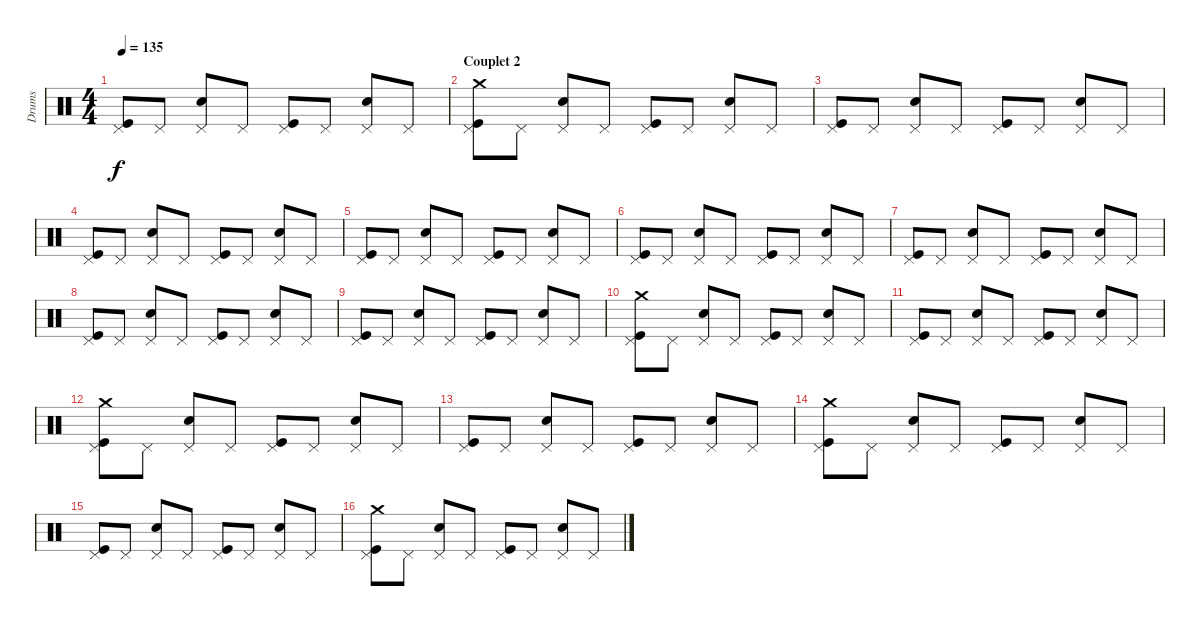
\track ("Drums" "Drums") {instrument percussion}
\staff {score}
\articulation defaults
\ts (4 4)
\tempo 135
\clef neutral
\ks c
("Pedal Hi-Hat (hit)" "Kick (hit)").8{dy f} "Pedal Hi-Hat (hit)".8 ("Pedal Hi-Hat (hit)" "Electric Snare (hit)").8 "Pedal Hi-Hat (hit)".8 ("Pedal Hi-Hat (hit)" "Kick (hit)").8 "Pedal Hi-Hat (hit)".8 ("Pedal Hi-Hat (hit)" "Electric Snare (hit)").8 "Pedal Hi-Hat (hit)".8 |
\section ("" "Couplet 2")
("Pedal Hi-Hat (hit)" "Kick (hit)" "Crash medium (hit)").8 "Pedal Hi-Hat (hit)".8 ("Pedal Hi-Hat (hit)" "Electric Snare (hit)").8 "Pedal Hi-Hat (hit)".8 ("Pedal Hi-Hat (hit)" "Kick (hit)").8 "Pedal Hi-Hat (hit)".8 ("Pedal Hi-Hat (hit)" "Electric Snare (hit)").8 "Pedal Hi-Hat (hit)".8 |
("Pedal Hi-Hat (hit)" "Kick (hit)").8 "Pedal Hi-Hat (hit)".8 ("Pedal Hi-Hat (hit)" "Electric Snare (hit)").8 "Pedal Hi-Hat (hit)".8 ("Pedal Hi-Hat (hit)" "Kick (hit)").8 "Pedal Hi-Hat (hit)".8 ("Pedal Hi-Hat (hit)" "Electric Snare (hit)").8 "Pedal Hi-Hat (hit)".8 |
("Pedal Hi-Hat (hit)" "Kick (hit)").8 "Pedal Hi-Hat (hit)".8 ("Pedal Hi-Hat (hit)" "Electric Snare (hit)").8 "Pedal Hi-Hat (hit)".8 ("Pedal Hi-Hat (hit)" "Kick (hit)").8 "Pedal Hi-Hat (hit)".8 ("Pedal Hi-Hat (hit)" "Electric Snare (hit)").8 "Pedal Hi-Hat (hit)".8 |
("Pedal Hi-Hat (hit)" "Kick (hit)").8 "Pedal Hi-Hat (hit)".8 ("Pedal Hi-Hat (hit)" "Electric Snare (hit)").8 "Pedal Hi-Hat (hit)".8 ("Pedal Hi-Hat (hit)" "Kick (hit)").8 "Pedal Hi-Hat (hit)".8 ("Pedal Hi-Hat (hit)" "Electric Snare (hit)").8 "Pedal Hi-Hat (hit)".8 |
("Pedal Hi-Hat (hit)" "Kick (hit)").8 "Pedal Hi-Hat (hit)".8 ("Pedal Hi-Hat (hit)" "Electric Snare (hit)").8 "Pedal Hi-Hat (hit)".8 ("Pedal Hi-Hat (hit)" "Kick (hit)").8 "Pedal Hi-Hat (hit)".8 ("Pedal Hi-Hat (hit)" "Electric Snare (hit)").8 "Pedal Hi-Hat (hit)".8 |
("Pedal Hi-Hat (hit)" "Kick (hit)").8 "Pedal Hi-Hat (hit)".8 ("Pedal Hi-Hat (hit)" "Electric Snare (hit)").8 "Pedal Hi-Hat (hit)".8 ("Pedal Hi-Hat (hit)" "Kick (hit)").8 "Pedal Hi-Hat (hit)".8 ("Pedal Hi-Hat (hit)" "Electric Snare (hit)").8 "Pedal Hi-Hat (hit)".8 |
("Pedal Hi-Hat (hit)" "Kick (hit)").8 "Pedal Hi-Hat (hit)".8 ("Pedal Hi-Hat (hit)" "Electric Snare (hit)").8 "Pedal Hi-Hat (hit)".8 ("Pedal Hi-Hat (hit)" "Kick (hit)").8 "Pedal Hi-Hat (hit)".8 ("Pedal Hi-Hat (hit)" "Electric Snare (hit)").8 "Pedal Hi-Hat (hit)".8 |
("Pedal Hi-Hat (hit)" "Kick (hit)").8 "Pedal Hi-Hat (hit)".8 ("Pedal Hi-Hat (hit)" "Electric Snare (hit)").8 "Pedal Hi-Hat (hit)".8 ("Pedal Hi-Hat (hit)" "Kick (hit)").8 "Pedal Hi-Hat (hit)".8 ("Pedal Hi-Hat (hit)" "Electric Snare (hit)").8 "Pedal Hi-Hat (hit)".8 |
("Pedal Hi-Hat (hit)" "Kick (hit)" "Crash medium (hit)").8 "Pedal Hi-Hat (hit)".8 ("Pedal Hi-Hat (hit)" "Electric Snare (hit)").8 "Pedal Hi-Hat (hit)".8 ("Pedal Hi-Hat (hit)" "Kick (hit)").8 "Pedal Hi-Hat (hit)".8 ("Pedal Hi-Hat (hit)" "Electric Snare (hit)").8 "Pedal Hi-Hat (hit)".8 |
("Pedal Hi-Hat (hit)" "Kick (hit)").8 "Pedal Hi-Hat (hit)".8 ("Pedal Hi-Hat (hit)" "Electric Snare (hit)").8 "Pedal Hi-Hat (hit)".8 ("Pedal Hi-Hat (hit)" "Kick (hit)").8 "Pedal Hi-Hat (hit)".8 ("Pedal Hi-Hat (hit)" "Electric Snare (hit)").8 "Pedal Hi-Hat (hit)".8 |
("Pedal Hi-Hat (hit)" "Kick (hit)" "Crash medium (hit)").8 "Pedal Hi-Hat (hit)".8 ("Pedal Hi-Hat (hit)" "Electric Snare (hit)").8 "Pedal Hi-Hat (hit)".8 ("Pedal Hi-Hat (hit)" "Kick (hit)").8 "Pedal Hi-Hat (hit)".8 ("Pedal Hi-Hat (hit)" "Electric Snare (hit)").8 "Pedal Hi-Hat (hit)".8 |
("Pedal Hi-Hat (hit)" "Kick (hit)").8 "Pedal Hi-Hat (hit)".8 ("Pedal Hi-Hat (hit)" "Electric Snare (hit)").8 "Pedal Hi-Hat (hit)".8 ("Pedal Hi-Hat (hit)" "Kick (hit)").8 "Pedal Hi-Hat (hit)".8 ("Pedal Hi-Hat (hit)" "Electric Snare (hit)").8 "Pedal Hi-Hat (hit)".8 |
("Pedal Hi-Hat (hit)" "Kick (hit)" "Crash medium (hit)").8 "Pedal Hi-Hat (hit)".8 ("Pedal Hi-Hat (hit)" "Electric Snare (hit)").8 "Pedal Hi-Hat (hit)".8 ("Pedal Hi-Hat (hit)" "Kick (hit)").8 "Pedal Hi-Hat (hit)".8 ("Pedal Hi-Hat (hit)" "Electric Snare (hit)").8 "Pedal Hi-Hat (hit)".8 |
("Pedal Hi-Hat (hit)" "Kick (hit)").8 "Pedal Hi-Hat (hit)".8 ("Pedal Hi-Hat (hit)" "Electric Snare (hit)").8 "Pedal Hi-Hat (hit)".8 ("Pedal Hi-Hat (hit)" "Kick (hit)").8 "Pedal Hi-Hat (hit)".8 ("Pedal Hi-Hat (hit)" "Electric Snare (hit)").8 "Pedal Hi-Hat (hit)".8 |
("Pedal Hi-Hat (hit)" "Kick (hit)" "Crash medium (hit)").8 "Pedal Hi-Hat (hit)".8 ("Pedal Hi-Hat (hit)" "Electric Snare (hit)").8 "Pedal Hi-Hat (hit)".8 ("Pedal Hi-Hat (hit)" "Kick (hit)").8 "Pedal Hi-Hat (hit)".8 ("Pedal Hi-Hat (hit)" "Electric Snare (hit)").8 "Pedal Hi-Hat (hit)".8
